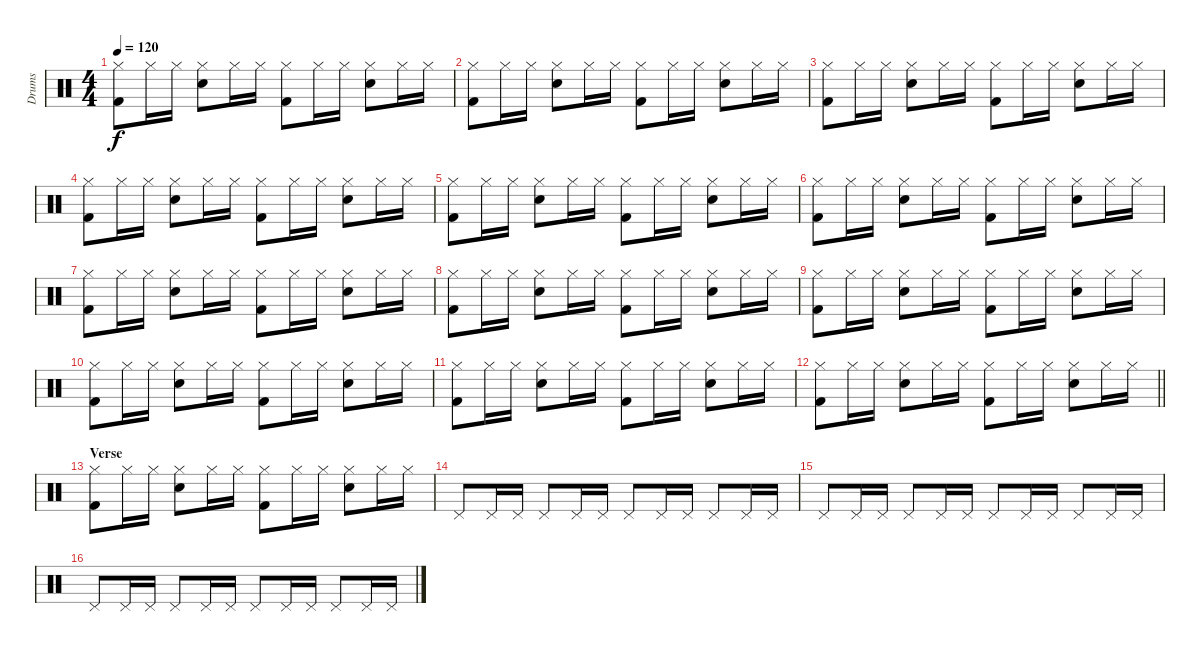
\track ("Drums" "Drums") {instrument percussion}
\staff {score}
\articulation defaults
\ts (4 4)
\tempo 120
\clef neutral
\ks c
("Kick (hit) 2" "Hi-Hat (closed)").8{dy f} "Hi-Hat (closed)".16 "Hi-Hat (closed)".16 ("Electric Snare (hit)" "Hi-Hat (closed)").8 "Hi-Hat (closed)".16 "Hi-Hat (closed)".16 ("Kick (hit) 2" "Hi-Hat (closed)").8 "Hi-Hat (closed)".16 "Hi-Hat (closed)".16 ("Electric Snare (hit)" "Hi-Hat (closed)").8 "Hi-Hat (closed)".16 "Hi-Hat (closed)".16 |
("Kick (hit) 2" "Hi-Hat (closed)").8 "Hi-Hat (closed)".16 "Hi-Hat (closed)".16 ("Electric Snare (hit)" "Hi-Hat (closed)").8 "Hi-Hat (closed)".16 "Hi-Hat (closed)".16 ("Kick (hit) 2" "Hi-Hat (closed)").8 "Hi-Hat (closed)".16 "Hi-Hat (closed)".16 ("Electric Snare (hit)" "Hi-Hat (closed)").8 "Hi-Hat (closed)".16 "Hi-Hat (closed)".16 |
("Kick (hit) 2" "Hi-Hat (closed)").8 "Hi-Hat (closed)".16 "Hi-Hat (closed)".16 ("Electric Snare (hit)" "Hi-Hat (closed)").8 "Hi-Hat (closed)".16 "Hi-Hat (closed)".16 ("Kick (hit) 2" "Hi-Hat (closed)").8 "Hi-Hat (closed)".16 "Hi-Hat (closed)".16 ("Electric Snare (hit)" "Hi-Hat (closed)").8 "Hi-Hat (closed)".16 "Hi-Hat (closed)".16 |
("Kick (hit) 2" "Hi-Hat (closed)").8 "Hi-Hat (closed)".16 "Hi-Hat (closed)".16 ("Electric Snare (hit)" "Hi-Hat (closed)").8 "Hi-Hat (closed)".16 "Hi-Hat (closed)".16 ("Kick (hit) 2" "Hi-Hat (closed)").8 "Hi-Hat (closed)".16 "Hi-Hat (closed)".16 ("Electric Snare (hit)" "Hi-Hat (closed)").8 "Hi-Hat (closed)".16 "Hi-Hat (closed)".16 |
("Kick (hit) 2" "Hi-Hat (closed)").8 "Hi-Hat (closed)".16 "Hi-Hat (closed)".16 ("Electric Snare (hit)" "Hi-Hat (closed)").8 "Hi-Hat (closed)".16 "Hi-Hat (closed)".16 ("Kick (hit) 2" "Hi-Hat (closed)").8 "Hi-Hat (closed)".16 "Hi-Hat (closed)".16 ("Electric Snare (hit)" "Hi-Hat (closed)").8 "Hi-Hat (closed)".16 "Hi-Hat (closed)".16 |
("Kick (hit) 2" "Hi-Hat (closed)").8 "Hi-Hat (closed)".16 "Hi-Hat (closed)".16 ("Electric Snare (hit)" "Hi-Hat (closed)").8 "Hi-Hat (closed)".16 "Hi-Hat (closed)".16 ("Kick (hit) 2" "Hi-Hat (closed)").8 "Hi-Hat (closed)".16 "Hi-Hat (closed)".16 ("Electric Snare (hit)" "Hi-Hat (closed)").8 "Hi-Hat (closed)".16 "Hi-Hat (closed)".16 |
("Kick (hit) 2" "Hi-Hat (closed)").8 "Hi-Hat (closed)".16 "Hi-Hat (closed)".16 ("Electric Snare (hit)" "Hi-Hat (closed)").8 "Hi-Hat (closed)".16 "Hi-Hat (closed)".16 ("Kick (hit) 2" "Hi-Hat (closed)").8 "Hi-Hat (closed)".16 "Hi-Hat (closed)".16 ("Electric Snare (hit)" "Hi-Hat (closed)").8 "Hi-Hat (closed)".16 "Hi-Hat (closed)".16 |
("Kick (hit) 2" "Hi-Hat (closed)").8 "Hi-Hat (closed)".16 "Hi-Hat (closed)".16 ("Electric Snare (hit)" "Hi-Hat (closed)").8 "Hi-Hat (closed)".16 "Hi-Hat (closed)".16 ("Kick (hit) 2" "Hi-Hat (closed)").8 "Hi-Hat (closed)".16 "Hi-Hat (closed)".16 ("Electric Snare (hit)" "Hi-Hat (closed)").8 "Hi-Hat (closed)".16 "Hi-Hat (closed)".16 |
("Kick (hit) 2" "Hi-Hat (closed)").8 "Hi-Hat (closed)".16 "Hi-Hat (closed)".16 ("Electric Snare (hit)" "Hi-Hat (closed)").8 "Hi-Hat (closed)".16 "Hi-Hat (closed)".16 ("Kick (hit) 2" "Hi-Hat (closed)").8 "Hi-Hat (closed)".16 "Hi-Hat (closed)".16 ("Electric Snare (hit)" "Hi-Hat (closed)").8 "Hi-Hat (closed)".16 "Hi-Hat (closed)".16 |
("Kick (hit) 2" "Hi-Hat (closed)").8 "Hi-Hat (closed)".16 "Hi-Hat (closed)".16 ("Electric Snare (hit)" "Hi-Hat (closed)").8 "Hi-Hat (closed)".16 "Hi-Hat (closed)".16 ("Kick (hit) 2" "Hi-Hat (closed)").8 "Hi-Hat (closed)".16 "Hi-Hat (closed)".16 ("Electric Snare (hit)" "Hi-Hat (closed)").8 "Hi-Hat (closed)".16 "Hi-Hat (closed)".16 |
("Kick (hit) 2" "Hi-Hat (closed)").8 "Hi-Hat (closed)".16 "Hi-Hat (closed)".16 ("Electric Snare (hit)" "Hi-Hat (closed)").8 "Hi-Hat (closed)".16 "Hi-Hat (closed)".16 ("Kick (hit) 2" "Hi-Hat (closed)").8 "Hi-Hat (closed)".16 "Hi-Hat (closed)".16 ("Electric Snare (hit)" "Hi-Hat (closed)").8 "Hi-Hat (closed)".16 "Hi-Hat (closed)".16 |
\barLineRight lightlight
("Kick (hit) 2" "Hi-Hat (closed)").8 "Hi-Hat (closed)".16 "Hi-Hat (closed)".16 ("Electric Snare (hit)" "Hi-Hat (closed)").8 "Hi-Hat (closed)".16 "Hi-Hat (closed)".16 ("Kick (hit) 2" "Hi-Hat (closed)").8 "Hi-Hat (closed)".16 "Hi-Hat (closed)".16 ("Electric Snare (hit)" "Hi-Hat (closed)").8 "Hi-Hat (closed)".16 "Hi-Hat (closed)".16 |
\section ("" "Verse")
("Kick (hit) 2" "Hi-Hat (closed)").8 "Hi-Hat (closed)".16 "Hi-Hat (closed)".16 ("Electric Snare (hit)" "Hi-Hat (closed)").8 "Hi-Hat (closed)".16 "Hi-Hat (closed)".16 ("Kick (hit) 2" "Hi-Hat (closed)").8 "Hi-Hat (closed)".16 "Hi-Hat (closed)".16 ("Electric Snare (hit)" "Hi-Hat (closed)").8 "Hi-Hat (closed)".16 "Hi-Hat (closed)".16 |
"Pedal Hi-Hat (hit)".8 "Pedal Hi-Hat (hit)".16 "Pedal Hi-Hat (hit)".16 "Pedal Hi-Hat (hit)".8 "Pedal Hi-Hat (hit)".16 "Pedal Hi-Hat (hit)".16 "Pedal Hi-Hat (hit)".8 "Pedal Hi-Hat (hit)".16 "Pedal Hi-Hat (hit)".16 "Pedal Hi-Hat (hit)".8 "Pedal Hi-Hat (hit)".16 "Pedal Hi-Hat (hit)".16 |
"Pedal Hi-Hat (hit)".8 "Pedal Hi-Hat (hit)".16 "Pedal Hi-Hat (hit)".16 "Pedal Hi-Hat (hit)".8 "Pedal Hi-Hat (hit)".16 "Pedal Hi-Hat (hit)".16 "Pedal Hi-Hat (hit)".8 "Pedal Hi-Hat (hit)".16 "Pedal Hi-Hat (hit)".16 "Pedal Hi-Hat (hit)".8 "Pedal Hi-Hat (hit)".16 "Pedal Hi-Hat (hit)".16 |
"Pedal Hi-Hat (hit)".8 "Pedal Hi-Hat (hit)".16 "Pedal Hi-Hat (hit)".16 "Pedal Hi-Hat (hit)".8 "Pedal Hi-Hat (hit)".16 "Pedal Hi-Hat (hit)".16 "Pedal Hi-Hat (hit)".8 "Pedal Hi-Hat (hit)".16 "Pedal Hi-Hat (hit)".16 "Pedal Hi-Hat (hit)".8 "Pedal Hi-Hat (hit)".16 "Pedal Hi-Hat (hit)".16
